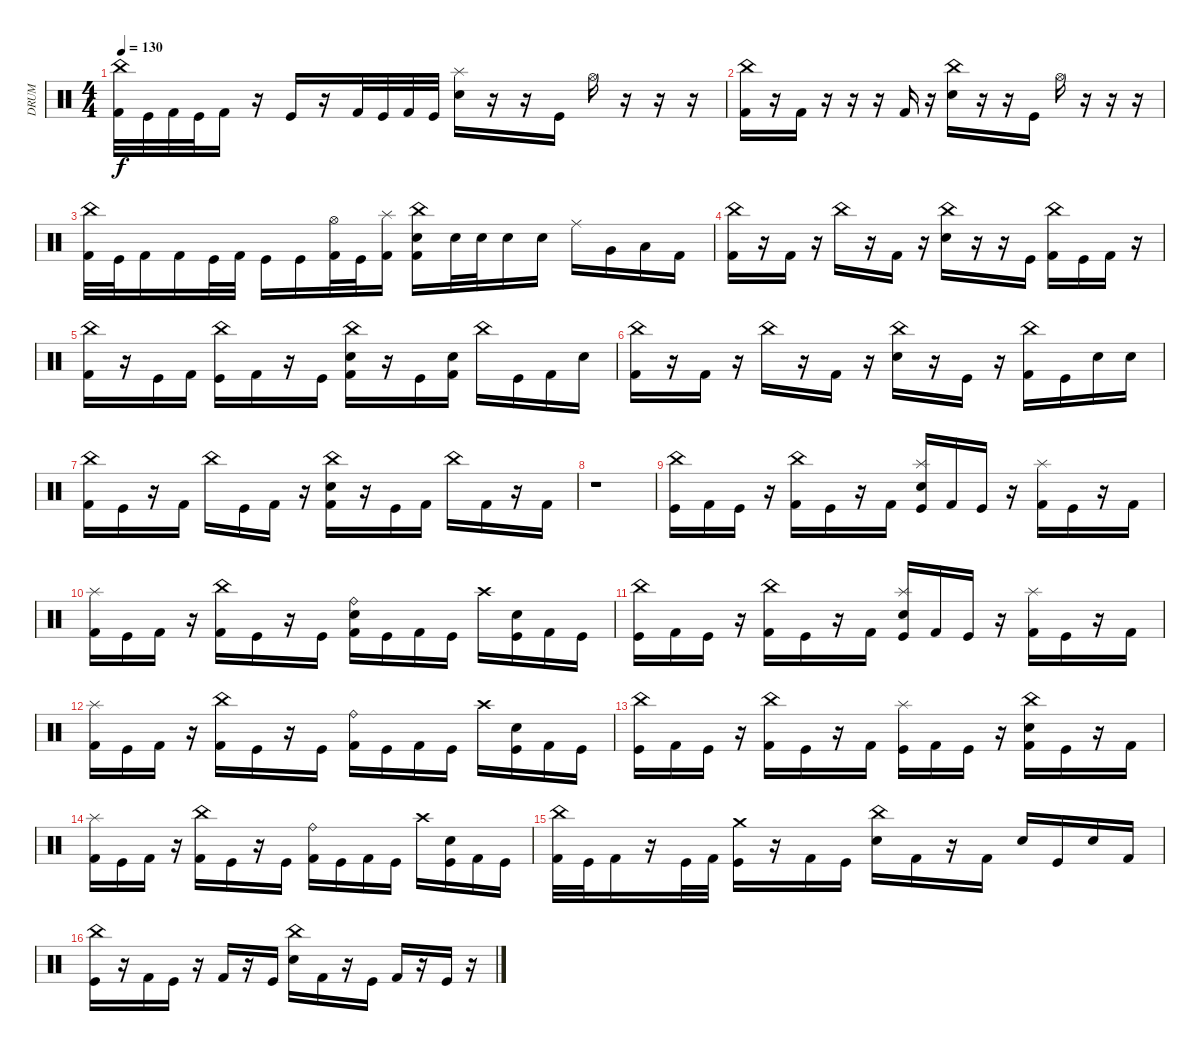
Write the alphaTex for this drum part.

\track ("DRUM" "DRUM") {instrument percussion}
\staff {score}
\articulation defaults
\ts (4 4)
\tempo 130
\clef neutral
\ks c
("China (hit)" "Kick (hit) 2").32{dy f} "Kick (hit)".32 "Kick (hit) 2".32 "Kick (hit)".32 "Kick (hit) 2".16 r.16 "Kick (hit)".16 r.16 "Kick (hit) 2".32 "Kick (hit)".32 "Kick (hit) 2".32 "Kick (hit)".32 ("Splash (hit)" "Electric Snare (hit)").16 r.16 r.16 "Kick (hit)".16 "Hi-Hat (open)".16 r.16 r.16 r.16 |
("China (hit)" "Kick (hit) 2").16 r.16 "Kick (hit) 2".16 r.16 r.16 r.16 "Kick (hit) 2".16 r.16 ("China (hit)" "Electric Snare (hit)").16 r.16 r.16 "Kick (hit)".16 "Hi-Hat (open)".16 r.16 r.16 r.16 |
("China (hit)" "Kick (hit) 2").32 "Kick (hit)".32 "Kick (hit) 2".16 "Kick (hit) 2".16 "Kick (hit)".32 "Kick (hit) 2".32 "Kick (hit)".16 "Kick (hit)".16 ("Hi-Hat (open)" "Kick (hit) 2").32 "Kick (hit)".32 ("Splash (hit)" "Kick (hit) 2").16 ("China (hit)" "Electric Snare (hit)" "Kick (hit) 2").16 "Electric Snare (hit)".32 "Electric Snare (hit)".32 "Electric Snare (hit)".16 "Electric Snare (hit)".16 "Ride (middle)".16 "Very Low Tom (hit)".16 "Low Floor Tom (hit)".16 "Kick (hit) 2".16 |
("China (hit)" "Kick (hit) 2").16 r.16 "Kick (hit) 2".16 r.16 "China (hit)".16 r.16 "Kick (hit) 2".16 r.16 ("China (hit)" "Electric Snare (hit)").16 r.16 r.16 "Kick (hit)".16 ("China (hit)" "Kick (hit) 2").16 "Kick (hit)".16 "Kick (hit) 2".16 r.16 |
("China (hit)" "Kick (hit) 2").16 r.16 "Kick (hit)".16 "Kick (hit) 2".16 ("China (hit)" "Kick (hit)").16 "Kick (hit) 2".16 r.16 "Kick (hit)".16 ("China (hit)" "Electric Snare (hit)" "Kick (hit) 2").16 r.16 "Kick (hit)".16 ("Electric Snare (hit)" "Kick (hit) 2").16 "China (hit)".16 "Kick (hit)".16 "Kick (hit) 2".16 "Electric Snare (hit)".16 |
("China (hit)" "Kick (hit) 2").16 r.16 "Kick (hit) 2".16 r.16 "China (hit)".16 r.16 "Kick (hit) 2".16 r.16 ("China (hit)" "Electric Snare (hit)").16 r.16 "Kick (hit)".16 r.16 ("China (hit)" "Kick (hit) 2").16 "Kick (hit)".16 "Electric Snare (hit)".16 "Electric Snare (hit)".16 |
("China (hit)" "Kick (hit) 2").16 "Kick (hit)".16 r.16 "Kick (hit) 2".16 "China (hit)".16 "Kick (hit)".16 "Kick (hit) 2".16 r.16 ("China (hit)" "Electric Snare (hit)" "Kick (hit) 2").16 r.16 "Kick (hit)".16 "Kick (hit) 2".16 "China (hit)".16 "Kick (hit) 2".16 r.16 "Kick (hit) 2".16 |
r.1 |
("China (hit)" "Kick (hit)").16 "Kick (hit) 2".16 "Kick (hit)".16 r.16 ("China (hit)" "Kick (hit) 2").16 "Kick (hit)".16 r.16 "Kick (hit) 2".16 ("Splash (hit)" "Electric Snare (hit)" "Kick (hit)").16 "Kick (hit) 2".16 "Kick (hit)".16 r.16 ("Splash (hit)" "Kick (hit) 2").16 "Kick (hit)".16 r.16 "Kick (hit) 2".16 |
("Splash (hit)" "Kick (hit) 2").16 "Kick (hit)".16 "Kick (hit) 2".16 r.16 ("China (hit)" "Kick (hit) 2").16 "Kick (hit)".16 r.16 "Kick (hit)".16 ("Ride (bell)" "Electric Snare (hit)" "Kick (hit) 2").16 "Kick (hit)".16 "Kick (hit) 2".16 "Kick (hit)".16 "Crash high (hit)".16 ("Electric Snare (hit)" "Kick (hit)").16 "Kick (hit) 2".16 "Kick (hit)".16 |
("China (hit)" "Kick (hit)").16 "Kick (hit) 2".16 "Kick (hit)".16 r.16 ("China (hit)" "Kick (hit) 2").16 "Kick (hit)".16 r.16 "Kick (hit) 2".16 ("Splash (hit)" "Electric Snare (hit)" "Kick (hit)").16 "Kick (hit) 2".16 "Kick (hit)".16 r.16 ("Splash (hit)" "Kick (hit) 2").16 "Kick (hit)".16 r.16 "Kick (hit) 2".16 |
("Splash (hit)" "Kick (hit) 2").16 "Kick (hit)".16 "Kick (hit) 2".16 r.16 ("China (hit)" "Kick (hit) 2").16 "Kick (hit)".16 r.16 "Kick (hit)".16 ("Ride (bell)" "Kick (hit) 2").16 "Kick (hit)".16 "Kick (hit) 2".16 "Kick (hit)".16 "Crash high (hit)".16 ("Electric Snare (hit)" "Kick (hit)").16 "Kick (hit) 2".16 "Kick (hit)".16 |
("China (hit)" "Kick (hit)").16 "Kick (hit) 2".16 "Kick (hit)".16 r.16 ("China (hit)" "Kick (hit) 2").16 "Kick (hit)".16 r.16 "Kick (hit) 2".16 ("Splash (hit)" "Kick (hit)").16 "Kick (hit) 2".16 "Kick (hit)".16 r.16 ("China (hit)" "Electric Snare (hit)" "Kick (hit) 2").16 "Kick (hit)".16 r.16 "Kick (hit) 2".16 |
("Splash (hit)" "Kick (hit) 2").16 "Kick (hit)".16 "Kick (hit) 2".16 r.16 ("China (hit)" "Kick (hit) 2").16 "Kick (hit)".16 r.16 "Kick (hit)".16 ("Ride (bell)" "Kick (hit) 2").16 "Kick (hit)".16 "Kick (hit) 2".16 "Kick (hit)".16 "Crash high (hit)".16 ("Electric Snare (hit)" "Kick (hit)").16 "Kick (hit) 2".16 "Kick (hit)".16 |
("China (hit)" "Kick (hit) 2").32 "Kick (hit)".32 "Kick (hit) 2".16 r.16 "Kick (hit)".32 "Kick (hit) 2".32 ("Crash medium (hit)" "Kick (hit)").16 r.16 "Kick (hit) 2".16 "Kick (hit)".16 ("China (hit)" "Electric Snare (hit)").16 "Kick (hit) 2".16 r.16 "Kick (hit) 2".16 "Electric Snare (hit)".16 "Kick (hit)".16 "Electric Snare (hit)".16 "Kick (hit) 2".16 |
("China (hit)" "Kick (hit)").16 r.16 "Kick (hit) 2".16 "Kick (hit)".16 r.16 "Kick (hit) 2".16 r.16 "Kick (hit)".16 ("China (hit)" "Electric Snare (hit)").16 "Kick (hit) 2".16 r.16 "Kick (hit)".16 "Kick (hit) 2".16 r.16 "Kick (hit)".16 r.16
